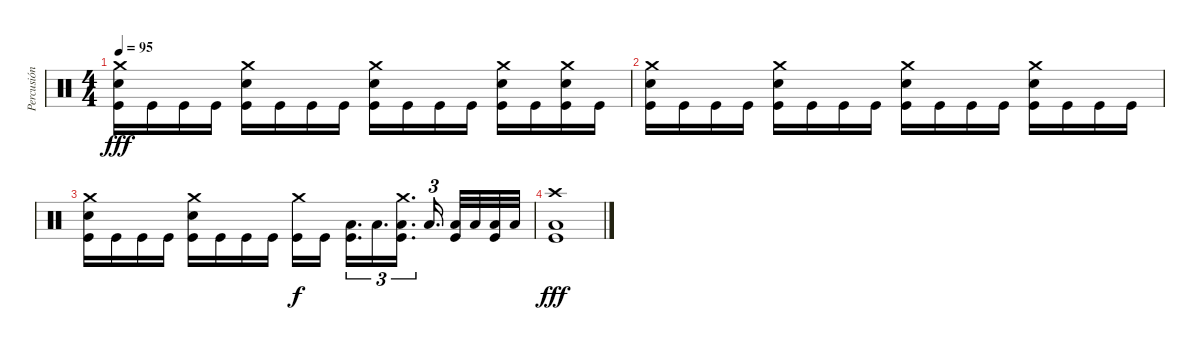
\track ("Percusión" "Percusión") {instrument percussion}
\staff {score}
\articulation defaults
\ts (4 4)
\tempo 95
\clef neutral
\ks c
("Crash medium (hit)" "Snare (hit) 2" "Kick (hit)").16{dy fff} "Kick (hit)".16 "Kick (hit)".16 "Kick (hit)".16 ("Crash medium (hit)" "Snare (hit) 2" "Kick (hit)").16 "Kick (hit)".16 "Kick (hit)".16 "Kick (hit)".16 ("Crash medium (hit)" "Snare (hit) 2" "Kick (hit)").16 "Kick (hit)".16 "Kick (hit)".16 "Kick (hit)".16 ("Crash medium (hit)" "Snare (hit) 2" "Kick (hit)").16 "Kick (hit)".16 ("Crash medium (hit)" "Snare (hit) 2" "Kick (hit)").16 "Kick (hit)".16 |
("Crash medium (hit)" "Snare (hit) 2" "Kick (hit)").16 "Kick (hit)".16 "Kick (hit)".16 "Kick (hit)".16 ("Crash medium (hit)" "Snare (hit) 2" "Kick (hit)").16 "Kick (hit)".16 "Kick (hit)".16 "Kick (hit)".16 ("Crash medium (hit)" "Snare (hit) 2" "Kick (hit)").16 "Kick (hit)".16 "Kick (hit)".16 "Kick (hit)".16 ("Crash medium (hit)" "Snare (hit) 2" "Kick (hit)").16 "Kick (hit)".16 "Kick (hit)".16 "Kick (hit)".16 |
("Crash medium (hit)" "Snare (hit) 2" "Kick (hit)").16 "Kick (hit)".16 "Kick (hit)".16 "Kick (hit)".16 ("Crash medium (hit)" "Snare (hit) 2" "Kick (hit)").16 "Kick (hit)".16 "Kick (hit)".16 "Kick (hit)".16 ("Crash medium (hit)" "Kick (hit)").16{dy f} "Kick (hit)".16{beam splitsecondary} ("Low Floor Tom (hit)" "Kick (hit)").16{d tu (3 2)} "Low Floor Tom (hit)".16{d tu (3 2)} ("Crash medium (hit)" "Low Floor Tom (hit)" "Kick (hit)").16{d tu (3 2)} "Low Floor Tom (hit)".16{d tu (3 2) beam splitsecondary} ("Low Floor Tom (hit)" "Kick (hit)").32 "Low Floor Tom (hit)".32 ("Low Floor Tom (hit)" "Kick (hit)").32 "Low Floor Tom (hit)".32 |
("Crash high (hit)" "Low Floor Tom (hit)" "Kick (hit)").1{dy fff}
